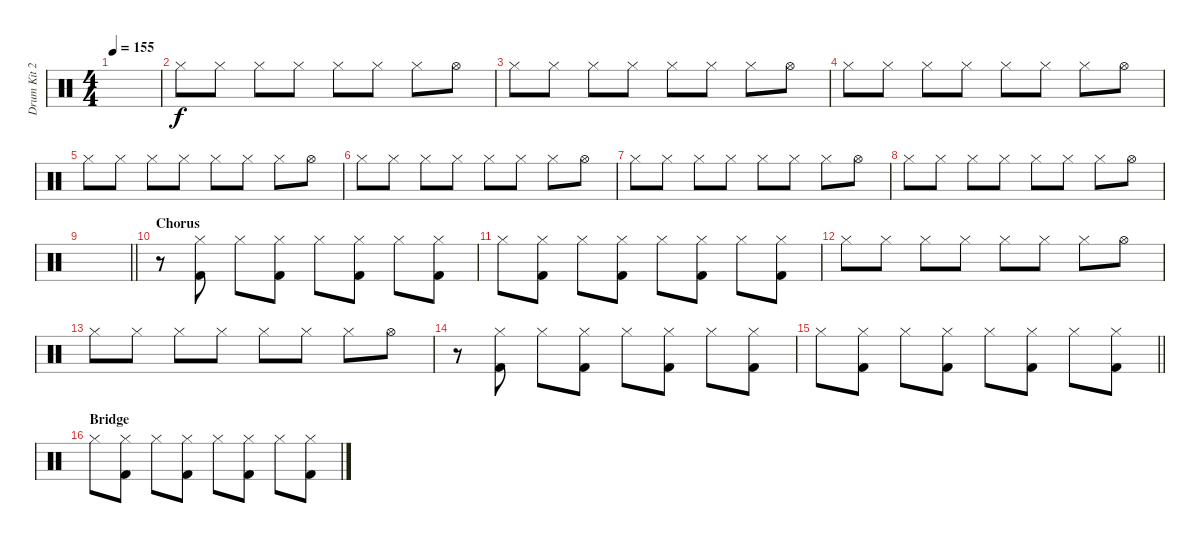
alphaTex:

\track ("Drum Kit 2" "Drum Kit 2") {instrument percussion}
\staff {score}
\articulation defaults
\ts (4 4)
\tempo 155
\clef neutral
\ks c
|
"Hi-Hat (closed)".8 "Hi-Hat (closed)".8 "Hi-Hat (closed)".8 "Hi-Hat (closed)".8 "Hi-Hat (closed)".8 "Hi-Hat (closed)".8 "Hi-Hat (closed)".8 "Hi-Hat (open)".8 |
"Hi-Hat (closed)".8 "Hi-Hat (closed)".8 "Hi-Hat (closed)".8 "Hi-Hat (closed)".8 "Hi-Hat (closed)".8 "Hi-Hat (closed)".8 "Hi-Hat (closed)".8 "Hi-Hat (open)".8 |
"Hi-Hat (closed)".8 "Hi-Hat (closed)".8 "Hi-Hat (closed)".8 "Hi-Hat (closed)".8 "Hi-Hat (closed)".8 "Hi-Hat (closed)".8 "Hi-Hat (closed)".8 "Hi-Hat (open)".8 |
"Hi-Hat (closed)".8 "Hi-Hat (closed)".8 "Hi-Hat (closed)".8 "Hi-Hat (closed)".8 "Hi-Hat (closed)".8 "Hi-Hat (closed)".8 "Hi-Hat (closed)".8 "Hi-Hat (open)".8 |
"Hi-Hat (closed)".8 "Hi-Hat (closed)".8 "Hi-Hat (closed)".8 "Hi-Hat (closed)".8 "Hi-Hat (closed)".8 "Hi-Hat (closed)".8 "Hi-Hat (closed)".8 "Hi-Hat (open)".8 |
"Hi-Hat (closed)".8 "Hi-Hat (closed)".8 "Hi-Hat (closed)".8 "Hi-Hat (closed)".8 "Hi-Hat (closed)".8 "Hi-Hat (closed)".8 "Hi-Hat (closed)".8 "Hi-Hat (open)".8 |
"Hi-Hat (closed)".8 "Hi-Hat (closed)".8 "Hi-Hat (closed)".8 "Hi-Hat (closed)".8 "Hi-Hat (closed)".8 "Hi-Hat (closed)".8 "Hi-Hat (closed)".8 "Hi-Hat (open)".8 |
\barLineRight lightlight
|
\section ("" "Chorus")
r.8 ("Kick (hit) 2" "Hi-Hat (closed)").8 "Hi-Hat (closed)".8 ("Kick (hit) 2" "Hi-Hat (closed)").8 "Hi-Hat (closed)".8 ("Kick (hit) 2" "Hi-Hat (closed)").8 "Hi-Hat (closed)".8 ("Kick (hit) 2" "Hi-Hat (closed)").8 |
"Hi-Hat (closed)".8 ("Kick (hit) 2" "Hi-Hat (closed)").8 "Hi-Hat (closed)".8 ("Kick (hit) 2" "Hi-Hat (closed)").8 "Hi-Hat (closed)".8 ("Kick (hit) 2" "Hi-Hat (closed)").8 "Hi-Hat (closed)".8 ("Kick (hit) 2" "Hi-Hat (closed)").8 |
"Hi-Hat (closed)".8 "Hi-Hat (closed)".8 "Hi-Hat (closed)".8 "Hi-Hat (closed)".8 "Hi-Hat (closed)".8 "Hi-Hat (closed)".8 "Hi-Hat (closed)".8 "Hi-Hat (open)".8 |
"Hi-Hat (closed)".8 "Hi-Hat (closed)".8 "Hi-Hat (closed)".8 "Hi-Hat (closed)".8 "Hi-Hat (closed)".8 "Hi-Hat (closed)".8 "Hi-Hat (closed)".8 "Hi-Hat (open)".8 |
r.8 ("Kick (hit) 2" "Hi-Hat (closed)").8 "Hi-Hat (closed)".8 ("Kick (hit) 2" "Hi-Hat (closed)").8 "Hi-Hat (closed)".8 ("Kick (hit) 2" "Hi-Hat (closed)").8 "Hi-Hat (closed)".8 ("Kick (hit) 2" "Hi-Hat (closed)").8 |
\barLineRight lightlight "Hi-Hat (closed)".8
("Kick (hit) 2" "Hi-Hat (closed)").8 "Hi-Hat (closed)".8 ("Kick (hit) 2" "Hi-Hat (closed)").8 "Hi-Hat (closed)".8 ("Kick (hit) 2" "Hi-Hat (closed)").8 "Hi-Hat (closed)".8 ("Kick (hit) 2" "Hi-Hat (closed)").8 |
\section ("" "Bridge")
"Hi-Hat (closed)".8 ("Kick (hit) 2" "Hi-Hat (closed)").8 "Hi-Hat (closed)".8 ("Kick (hit) 2" "Hi-Hat (closed)").8 "Hi-Hat (closed)".8 ("Kick (hit) 2" "Hi-Hat (closed)").8 "Hi-Hat (closed)".8 ("Kick (hit) 2" "Hi-Hat (closed)").8
